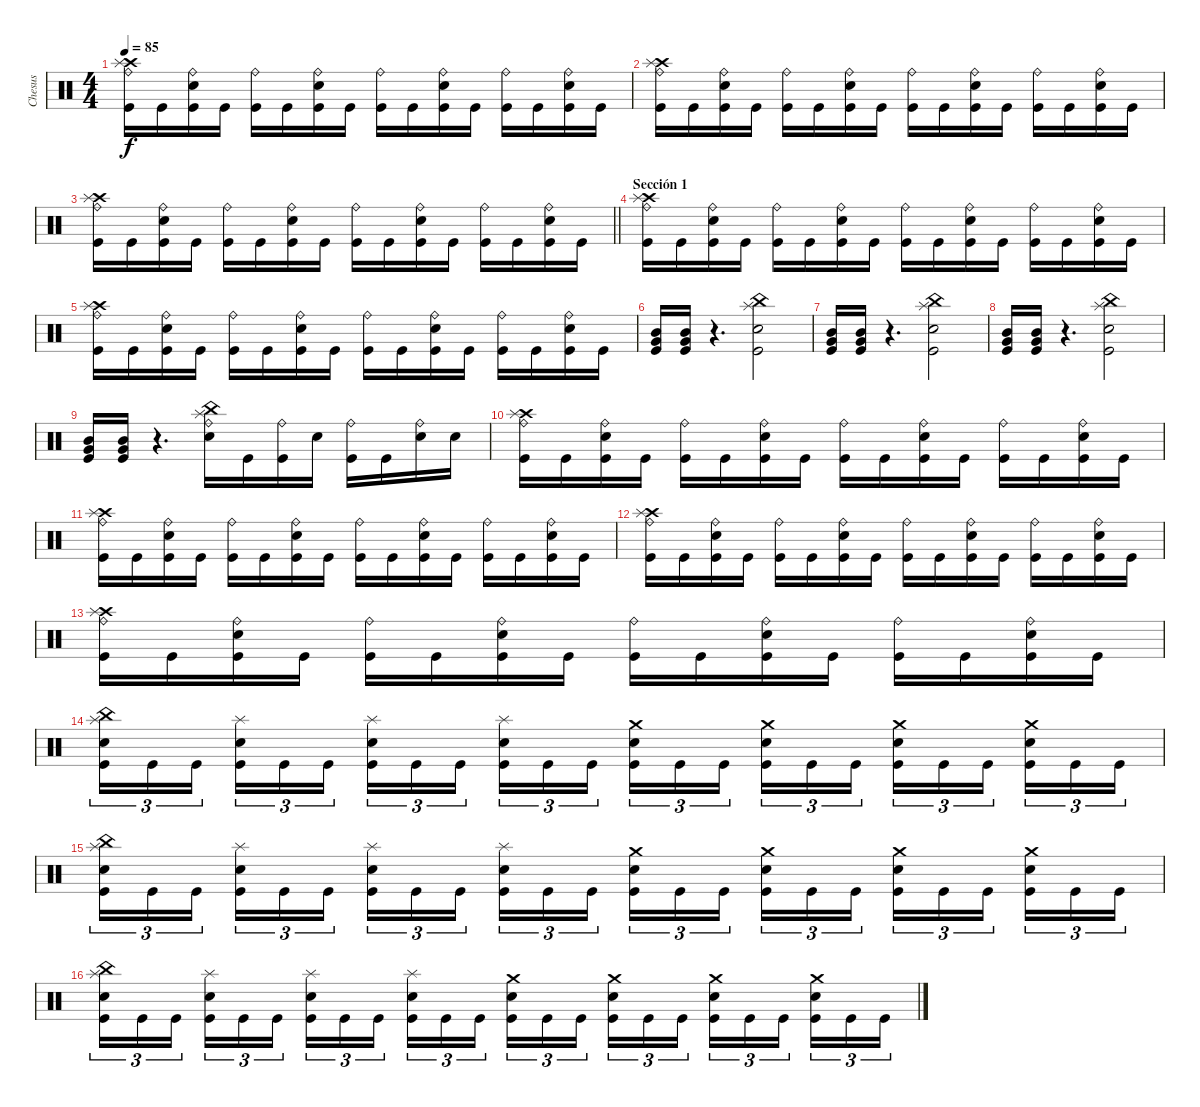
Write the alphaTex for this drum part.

\track ("Chesus" "Chesus") {instrument percussion}
\staff {score}
\articulation defaults
\ts (4 4)
\tempo 85
\clef neutral
\ks c
("Crash high (hit)" "Splash (hit)" "Ride (bell)" "Kick (hit)").16{dy f} "Kick (hit)".16 ("Ride (bell)" "Snare (hit) 2" "Kick (hit)").16 "Kick (hit)".16 ("Ride (bell)" "Kick (hit)").16 "Kick (hit)".16 ("Ride (bell)" "Snare (hit) 2" "Kick (hit)").16 "Kick (hit)".16 ("Ride (bell)" "Kick (hit)").16 "Kick (hit)".16 ("Ride (bell)" "Snare (hit) 2" "Kick (hit)").16 "Kick (hit)".16 ("Ride (bell)" "Kick (hit)").16 "Kick (hit)".16 ("Ride (bell)" "Snare (hit) 2" "Kick (hit)").16 "Kick (hit)".16 |
("Crash high (hit)" "Splash (hit)" "Ride (bell)" "Kick (hit)").16 "Kick (hit)".16 ("Ride (bell)" "Snare (hit) 2" "Kick (hit)").16 "Kick (hit)".16 ("Ride (bell)" "Kick (hit)").16 "Kick (hit)".16 ("Ride (bell)" "Snare (hit) 2" "Kick (hit)").16 "Kick (hit)".16 ("Ride (bell)" "Kick (hit)").16 "Kick (hit)".16 ("Ride (bell)" "Snare (hit) 2" "Kick (hit)").16 "Kick (hit)".16 ("Ride (bell)" "Kick (hit)").16 "Kick (hit)".16 ("Ride (bell)" "Snare (hit) 2" "Kick (hit)").16 "Kick (hit)".16 |
\barLineRight lightlight
("Crash high (hit)" "Splash (hit)" "Ride (bell)" "Kick (hit)").16 "Kick (hit)".16 ("Ride (bell)" "Snare (hit) 2" "Kick (hit)").16 "Kick (hit)".16 ("Ride (bell)" "Kick (hit)").16 "Kick (hit)".16 ("Ride (bell)" "Snare (hit) 2" "Kick (hit)").16 "Kick (hit)".16 ("Ride (bell)" "Kick (hit)").16 "Kick (hit)".16 ("Ride (bell)" "Snare (hit) 2" "Kick (hit)").16 "Kick (hit)".16 ("Ride (bell)" "Kick (hit)").16 "Kick (hit)".16 ("Ride (bell)" "Snare (hit) 2" "Kick (hit)").16 "Kick (hit)".16 |
\section ("" "Sección 1")
("Crash high (hit)" "Splash (hit)" "Ride (bell)" "Kick (hit)").16 "Kick (hit)".16 ("Ride (bell)" "Snare (hit) 2" "Kick (hit)").16 "Kick (hit)".16 ("Ride (bell)" "Kick (hit)").16 "Kick (hit)".16 ("Ride (bell)" "Snare (hit) 2" "Kick (hit)").16 "Kick (hit)".16 ("Ride (bell)" "Kick (hit)").16 "Kick (hit)".16 ("Ride (bell)" "Snare (hit) 2" "Kick (hit)").16 "Kick (hit)".16 ("Ride (bell)" "Kick (hit)").16 "Kick (hit)".16 ("Ride (bell)" "Snare (hit) 2" "Kick (hit)").16 "Kick (hit)".16 |
("Crash high (hit)" "Splash (hit)" "Ride (bell)" "Kick (hit)").16 "Kick (hit)".16 ("Ride (bell)" "Snare (hit) 2" "Kick (hit)").16 "Kick (hit)".16 ("Ride (bell)" "Kick (hit)").16 "Kick (hit)".16 ("Ride (bell)" "Snare (hit) 2" "Kick (hit)").16 "Kick (hit)".16 ("Ride (bell)" "Kick (hit)").16 "Kick (hit)".16 ("Ride (bell)" "Snare (hit) 2" "Kick (hit)").16 "Kick (hit)".16 ("Ride (bell)" "Kick (hit)").16 "Kick (hit)".16 ("Ride (bell)" "Snare (hit) 2" "Kick (hit)").16 "Kick (hit)".16 |
("Mid Tom (hit)" "Very Low Tom (hit)" "Kick (hit)").16 ("Mid Tom (hit)" "Very Low Tom (hit)" "Kick (hit)").16 r.4{d} ("Splash (hit)" "China (hit)" "Snare (hit) 2" "Kick (hit)").2 |
("Mid Tom (hit)" "Very Low Tom (hit)" "Kick (hit)").16 ("Mid Tom (hit)" "Very Low Tom (hit)" "Kick (hit)").16 r.4{d} ("Splash (hit)" "China (hit)" "Snare (hit) 2" "Kick (hit)").2 |
("Mid Tom (hit)" "Very Low Tom (hit)" "Kick (hit)").16 ("Mid Tom (hit)" "Very Low Tom (hit)" "Kick (hit)").16 r.4{d} ("Splash (hit)" "China (hit)" "Snare (hit) 2" "Kick (hit)").2 |
("Mid Tom (hit)" "Very Low Tom (hit)" "Kick (hit)").16 ("Mid Tom (hit)" "Very Low Tom (hit)" "Kick (hit)").16 r.4{d} ("Splash (hit)" "China (hit)" "Ride (bell)" "Snare (hit) 2").16 "Kick (hit)".16 ("Ride (bell)" "Kick (hit)").16 "Snare (hit) 2".16 ("Ride (bell)" "Kick (hit)").16 "Kick (hit)".16 ("Ride (bell)" "Snare (hit) 2").16 "Snare (hit) 2".16 |
("Crash high (hit)" "Splash (hit)" "Ride (bell)" "Kick (hit)").16 "Kick (hit)".16 ("Ride (bell)" "Snare (hit) 2" "Kick (hit)").16 "Kick (hit)".16 ("Ride (bell)" "Kick (hit)").16 "Kick (hit)".16 ("Ride (bell)" "Snare (hit) 2" "Kick (hit)").16 "Kick (hit)".16 ("Ride (bell)" "Kick (hit)").16 "Kick (hit)".16 ("Ride (bell)" "Snare (hit) 2" "Kick (hit)").16 "Kick (hit)".16 ("Ride (bell)" "Kick (hit)").16 "Kick (hit)".16 ("Ride (bell)" "Snare (hit) 2" "Kick (hit)").16 "Kick (hit)".16 |
("Crash high (hit)" "Splash (hit)" "Ride (bell)" "Kick (hit)").16 "Kick (hit)".16 ("Ride (bell)" "Snare (hit) 2" "Kick (hit)").16 "Kick (hit)".16 ("Ride (bell)" "Kick (hit)").16 "Kick (hit)".16 ("Ride (bell)" "Snare (hit) 2" "Kick (hit)").16 "Kick (hit)".16 ("Ride (bell)" "Kick (hit)").16 "Kick (hit)".16 ("Ride (bell)" "Snare (hit) 2" "Kick (hit)").16 "Kick (hit)".16 ("Ride (bell)" "Kick (hit)").16 "Kick (hit)".16 ("Ride (bell)" "Snare (hit) 2" "Kick (hit)").16 "Kick (hit)".16 |
("Crash high (hit)" "Splash (hit)" "Ride (bell)" "Kick (hit)").16 "Kick (hit)".16 ("Ride (bell)" "Snare (hit) 2" "Kick (hit)").16 "Kick (hit)".16 ("Ride (bell)" "Kick (hit)").16 "Kick (hit)".16 ("Ride (bell)" "Snare (hit) 2" "Kick (hit)").16 "Kick (hit)".16 ("Ride (bell)" "Kick (hit)").16 "Kick (hit)".16 ("Ride (bell)" "Snare (hit) 2" "Kick (hit)").16 "Kick (hit)".16 ("Ride (bell)" "Kick (hit)").16 "Kick (hit)".16 ("Ride (bell)" "Snare (hit) 2" "Kick (hit)").16 "Kick (hit)".16 |
("Crash high (hit)" "Splash (hit)" "Ride (bell)" "Kick (hit)").16 "Kick (hit)".16 ("Ride (bell)" "Snare (hit) 2" "Kick (hit)").16 "Kick (hit)".16 ("Ride (bell)" "Kick (hit)").16 "Kick (hit)".16 ("Ride (bell)" "Snare (hit) 2" "Kick (hit)").16 "Kick (hit)".16 ("Ride (bell)" "Kick (hit)").16 "Kick (hit)".16 ("Ride (bell)" "Snare (hit) 2" "Kick (hit)").16 "Kick (hit)".16 ("Ride (bell)" "Kick (hit)").16 "Kick (hit)".16 ("Ride (bell)" "Snare (hit) 2" "Kick (hit)").16 "Kick (hit)".16 |
("Splash (hit)" "China (hit)" "Snare (hit) 2" "Kick (hit)").16{tu (3 2)} "Kick (hit)".16{tu (3 2)} "Kick (hit)".16{tu (3 2)} ("Splash (hit)" "Snare (hit) 2" "Kick (hit)").16{tu (3 2)} "Kick (hit)".16{tu (3 2)} "Kick (hit)".16{tu (3 2)} ("Splash (hit)" "Snare (hit) 2" "Kick (hit)").16{tu (3 2)} "Kick (hit)".16{tu (3 2)} "Kick (hit)".16{tu (3 2)} ("Splash (hit)" "Snare (hit) 2" "Kick (hit)").16{tu (3 2)} "Kick (hit)".16{tu (3 2)} "Kick (hit)".16{tu (3 2)} ("Crash medium (hit)" "Snare (hit) 2" "Kick (hit)").16{tu (3 2)} "Kick (hit)".16{tu (3 2)} "Kick (hit)".16{tu (3 2)} ("Crash medium (hit)" "Snare (hit) 2" "Kick (hit)").16{tu (3 2)} "Kick (hit)".16{tu (3 2)} "Kick (hit)".16{tu (3 2)} ("Crash medium (hit)" "Snare (hit) 2" "Kick (hit)").16{tu (3 2)} "Kick (hit)".16{tu (3 2)} "Kick (hit)".16{tu (3 2)} ("Crash medium (hit)" "Snare (hit) 2" "Kick (hit)").16{tu (3 2)} "Kick (hit)".16{tu (3 2)} "Kick (hit)".16{tu (3 2)} |
("Splash (hit)" "China (hit)" "Snare (hit) 2" "Kick (hit)").16{tu (3 2)} "Kick (hit)".16{tu (3 2)} "Kick (hit)".16{tu (3 2)} ("Splash (hit)" "Snare (hit) 2" "Kick (hit)").16{tu (3 2)} "Kick (hit)".16{tu (3 2)} "Kick (hit)".16{tu (3 2)} ("Splash (hit)" "Snare (hit) 2" "Kick (hit)").16{tu (3 2)} "Kick (hit)".16{tu (3 2)} "Kick (hit)".16{tu (3 2)} ("Splash (hit)" "Snare (hit) 2" "Kick (hit)").16{tu (3 2)} "Kick (hit)".16{tu (3 2)} "Kick (hit)".16{tu (3 2)} ("Crash medium (hit)" "Snare (hit) 2" "Kick (hit)").16{tu (3 2)} "Kick (hit)".16{tu (3 2)} "Kick (hit)".16{tu (3 2)} ("Crash medium (hit)" "Snare (hit) 2" "Kick (hit)").16{tu (3 2)} "Kick (hit)".16{tu (3 2)} "Kick (hit)".16{tu (3 2)} ("Crash medium (hit)" "Snare (hit) 2" "Kick (hit)").16{tu (3 2)} "Kick (hit)".16{tu (3 2)} "Kick (hit)".16{tu (3 2)} ("Crash medium (hit)" "Snare (hit) 2" "Kick (hit)").16{tu (3 2)} "Kick (hit)".16{tu (3 2)} "Kick (hit)".16{tu (3 2)} |
("Splash (hit)" "China (hit)" "Snare (hit) 2" "Kick (hit)").16{tu (3 2)} "Kick (hit)".16{tu (3 2)} "Kick (hit)".16{tu (3 2)} ("Splash (hit)" "Snare (hit) 2" "Kick (hit)").16{tu (3 2)} "Kick (hit)".16{tu (3 2)} "Kick (hit)".16{tu (3 2)} ("Splash (hit)" "Snare (hit) 2" "Kick (hit)").16{tu (3 2)} "Kick (hit)".16{tu (3 2)} "Kick (hit)".16{tu (3 2)} ("Splash (hit)" "Snare (hit) 2" "Kick (hit)").16{tu (3 2)} "Kick (hit)".16{tu (3 2)} "Kick (hit)".16{tu (3 2)} ("Crash medium (hit)" "Snare (hit) 2" "Kick (hit)").16{tu (3 2)} "Kick (hit)".16{tu (3 2)} "Kick (hit)".16{tu (3 2)} ("Crash medium (hit)" "Snare (hit) 2" "Kick (hit)").16{tu (3 2)} "Kick (hit)".16{tu (3 2)} "Kick (hit)".16{tu (3 2)} ("Crash medium (hit)" "Snare (hit) 2" "Kick (hit)").16{tu (3 2)} "Kick (hit)".16{tu (3 2)} "Kick (hit)".16{tu (3 2)} ("Crash medium (hit)" "Snare (hit) 2" "Kick (hit)").16{tu (3 2)} "Kick (hit)".16{tu (3 2)} "Kick (hit)".16{tu (3 2)}
